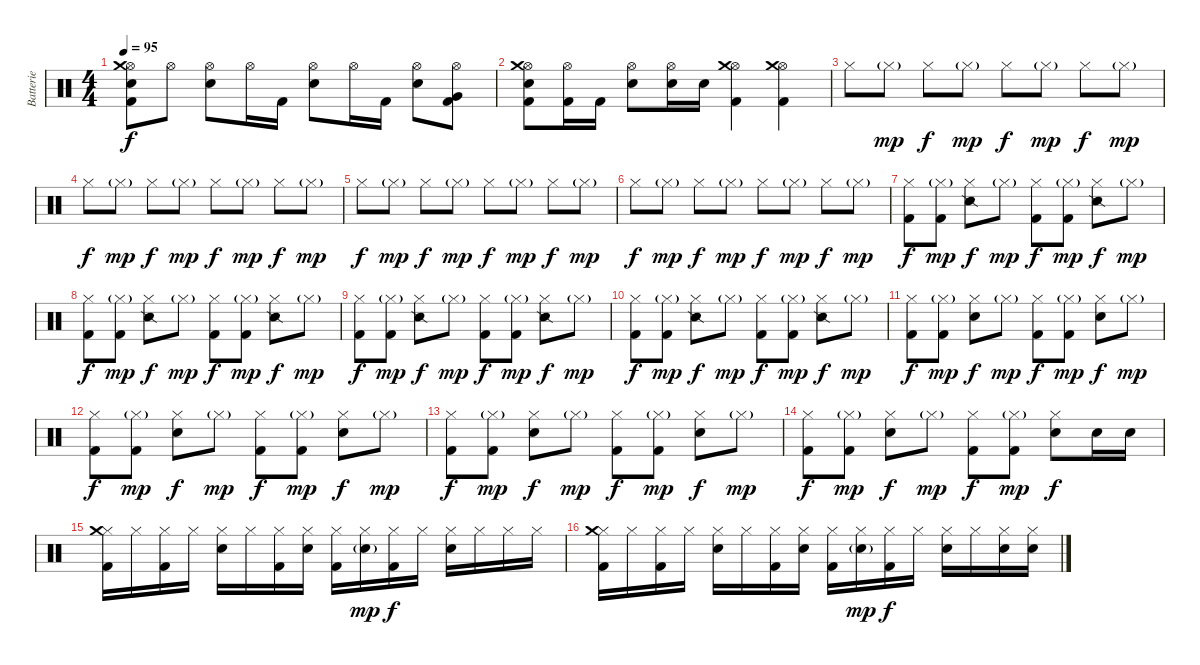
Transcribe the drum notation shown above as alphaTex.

\track ("Batterie" "Batterie") {instrument percussion}
\staff {score}
\articulation defaults
\ts (4 4)
\tempo 95
\clef neutral
\ks c
("Hi-Hat (open)" "Crash medium (hit)" "Electric Snare (hit)" "Kick (hit) 2").8{dy f} "Hi-Hat (open)".8 ("Hi-Hat (open)" "Electric Snare (hit)").8 "Hi-Hat (open)".16 "Kick (hit) 2".16 ("Hi-Hat (open)" "Electric Snare (hit)").8 "Hi-Hat (open)".16 "Kick (hit) 2".16 ("Hi-Hat (open)" "Electric Snare (hit)").8 ("Hi-Hat (open)" "Very Low Tom (hit)" "Kick (hit) 2").8 |
("Hi-Hat (open)" "Crash medium (hit)" "Electric Snare (hit)" "Kick (hit) 2").8 ("Hi-Hat (open)" "Kick (hit) 2").16 "Kick (hit) 2".16 ("Hi-Hat (open)" "Electric Snare (hit)").8 ("Hi-Hat (open)" "Electric Snare (hit)").16 "Electric Snare (hit)".16 ("Hi-Hat (open)" "Crash medium (hit)" "Kick (hit) 2").4 ("Hi-Hat (open)" "Crash medium (hit)" "Kick (hit) 2").4 |
"Hi-Hat (closed)".8 "Hi-Hat (closed)"{g}.8{dy mp} "Hi-Hat (closed)".8{dy f} "Hi-Hat (closed)"{g}.8{dy mp} "Hi-Hat (closed)".8{dy f} "Hi-Hat (closed)"{g}.8{dy mp} "Hi-Hat (closed)".8{dy f} "Hi-Hat (closed)"{g}.8{dy mp} |
"Hi-Hat (closed)".8{dy f} "Hi-Hat (closed)"{g}.8{dy mp} "Hi-Hat (closed)".8{dy f} "Hi-Hat (closed)"{g}.8{dy mp} "Hi-Hat (closed)".8{dy f} "Hi-Hat (closed)"{g}.8{dy mp} "Hi-Hat (closed)".8{dy f} "Hi-Hat (closed)"{g}.8{dy mp} |
"Hi-Hat (closed)".8{dy f} "Hi-Hat (closed)"{g}.8{dy mp} "Hi-Hat (closed)".8{dy f} "Hi-Hat (closed)"{g}.8{dy mp} "Hi-Hat (closed)".8{dy f} "Hi-Hat (closed)"{g}.8{dy mp} "Hi-Hat (closed)".8{dy f} "Hi-Hat (closed)"{g}.8{dy mp} |
"Hi-Hat (closed)".8{dy f} "Hi-Hat (closed)"{g}.8{dy mp} "Hi-Hat (closed)".8{dy f} "Hi-Hat (closed)"{g}.8{dy mp} "Hi-Hat (closed)".8{dy f} "Hi-Hat (closed)"{g}.8{dy mp} "Hi-Hat (closed)".8{dy f} "Hi-Hat (closed)"{g}.8{dy mp} |
("Hi-Hat (closed)" "Kick (hit) 2").8{dy f} ("Hi-Hat (closed)"{g} "Kick (hit) 2").8{dy mp} ("Hi-Hat (closed)" "Snare (side stick) 2").8{dy f} "Hi-Hat (closed)"{g}.8{dy mp} ("Hi-Hat (closed)" "Kick (hit) 2").8{dy f} ("Hi-Hat (closed)"{g} "Kick (hit) 2").8{dy mp} ("Hi-Hat (closed)" "Snare (side stick) 2").8{dy f} "Hi-Hat (closed)"{g}.8{dy mp} |
("Hi-Hat (closed)" "Kick (hit) 2").8{dy f} ("Hi-Hat (closed)"{g} "Kick (hit) 2").8{dy mp} ("Hi-Hat (closed)" "Snare (side stick) 2").8{dy f} "Hi-Hat (closed)"{g}.8{dy mp} ("Hi-Hat (closed)" "Kick (hit) 2").8{dy f} ("Hi-Hat (closed)"{g} "Kick (hit) 2").8{dy mp} ("Hi-Hat (closed)" "Snare (side stick) 2").8{dy f} "Hi-Hat (closed)"{g}.8{dy mp} |
("Hi-Hat (closed)" "Kick (hit) 2").8{dy f} ("Hi-Hat (closed)"{g} "Kick (hit) 2").8{dy mp} ("Hi-Hat (closed)" "Snare (side stick) 2").8{dy f} "Hi-Hat (closed)"{g}.8{dy mp} ("Hi-Hat (closed)" "Kick (hit) 2").8{dy f} ("Hi-Hat (closed)"{g} "Kick (hit) 2").8{dy mp} ("Hi-Hat (closed)" "Snare (side stick) 2").8{dy f} "Hi-Hat (closed)"{g}.8{dy mp} |
("Hi-Hat (closed)" "Kick (hit) 2").8{dy f} ("Hi-Hat (closed)"{g} "Kick (hit) 2").8{dy mp} ("Hi-Hat (closed)" "Snare (side stick) 2").8{dy f} "Hi-Hat (closed)"{g}.8{dy mp} ("Hi-Hat (closed)" "Kick (hit) 2").8{dy f} ("Hi-Hat (closed)"{g} "Kick (hit) 2").8{dy mp} ("Hi-Hat (closed)" "Snare (side stick) 2").8{dy f} "Hi-Hat (closed)"{g}.8{dy mp} |
("Hi-Hat (closed)" "Kick (hit) 2").8{dy f} ("Hi-Hat (closed)"{g} "Kick (hit) 2").8{dy mp} ("Hi-Hat (closed)" "Electric Snare (hit)").8{dy f} "Hi-Hat (closed)"{g}.8{dy mp} ("Hi-Hat (closed)" "Kick (hit) 2").8{dy f} ("Hi-Hat (closed)"{g} "Kick (hit) 2").8{dy mp} ("Hi-Hat (closed)" "Electric Snare (hit)").8{dy f} "Hi-Hat (closed)"{g}.8{dy mp} |
("Hi-Hat (closed)" "Kick (hit) 2").8{dy f} ("Hi-Hat (closed)"{g} "Kick (hit) 2").8{dy mp} ("Hi-Hat (closed)" "Electric Snare (hit)").8{dy f} "Hi-Hat (closed)"{g}.8{dy mp} ("Hi-Hat (closed)" "Kick (hit) 2").8{dy f} ("Hi-Hat (closed)"{g} "Kick (hit) 2").8{dy mp} ("Hi-Hat (closed)" "Electric Snare (hit)").8{dy f} "Hi-Hat (closed)"{g}.8{dy mp} |
("Hi-Hat (closed)" "Kick (hit) 2").8{dy f} ("Hi-Hat (closed)"{g} "Kick (hit) 2").8{dy mp} ("Hi-Hat (closed)" "Electric Snare (hit)").8{dy f} "Hi-Hat (closed)"{g}.8{dy mp} ("Hi-Hat (closed)" "Kick (hit) 2").8{dy f} ("Hi-Hat (closed)"{g} "Kick (hit) 2").8{dy mp} ("Hi-Hat (closed)" "Electric Snare (hit)").8{dy f} "Hi-Hat (closed)"{g}.8{dy mp} |
("Hi-Hat (closed)" "Kick (hit) 2").8{dy f} ("Hi-Hat (closed)"{g} "Kick (hit) 2").8{dy mp} ("Hi-Hat (closed)" "Electric Snare (hit)").8{dy f} "Hi-Hat (closed)"{g}.8{dy mp} ("Hi-Hat (closed)" "Kick (hit) 2").8{dy f} ("Hi-Hat (closed)"{g} "Kick (hit) 2").8{dy mp} ("Hi-Hat (closed)" "Electric Snare (hit)").8{dy f} "Electric Snare (hit)".16 "Electric Snare (hit)".16 |
("Hi-Hat (closed)" "Crash medium (hit)" "Kick (hit) 2").16 "Hi-Hat (closed)".16 ("Hi-Hat (closed)" "Kick (hit) 2").16 "Hi-Hat (closed)".16 ("Hi-Hat (closed)" "Electric Snare (hit)").16 "Hi-Hat (closed)".16 ("Hi-Hat (closed)" "Kick (hit) 2").16 ("Hi-Hat (closed)" "Electric Snare (hit)").16 ("Hi-Hat (closed)" "Kick (hit) 2").16 ("Hi-Hat (closed)" "Electric Snare (hit)"{g}).16{dy mp} ("Hi-Hat (closed)" "Kick (hit) 2").16{dy f} "Hi-Hat (closed)".16 ("Hi-Hat (closed)" "Electric Snare (hit)").16 "Hi-Hat (closed)".16 "Hi-Hat (closed)".16 "Hi-Hat (closed)".16 |
("Hi-Hat (closed)" "Crash medium (hit)" "Kick (hit) 2").16 "Hi-Hat (closed)".16 ("Hi-Hat (closed)" "Kick (hit) 2").16 "Hi-Hat (closed)".16 ("Hi-Hat (closed)" "Electric Snare (hit)").16 "Hi-Hat (closed)".16 ("Hi-Hat (closed)" "Kick (hit) 2").16 ("Hi-Hat (closed)" "Electric Snare (hit)").16 ("Hi-Hat (closed)" "Kick (hit) 2").16 ("Hi-Hat (closed)" "Electric Snare (hit)"{g}).16{dy mp} ("Hi-Hat (closed)" "Kick (hit) 2").16{dy f} "Hi-Hat (closed)".16 ("Hi-Hat (closed)" "Electric Snare (hit)").16 "Hi-Hat (closed)".16 ("Hi-Hat (closed)" "Electric Snare (hit)").16 ("Hi-Hat (closed)" "Electric Snare (hit)").16
